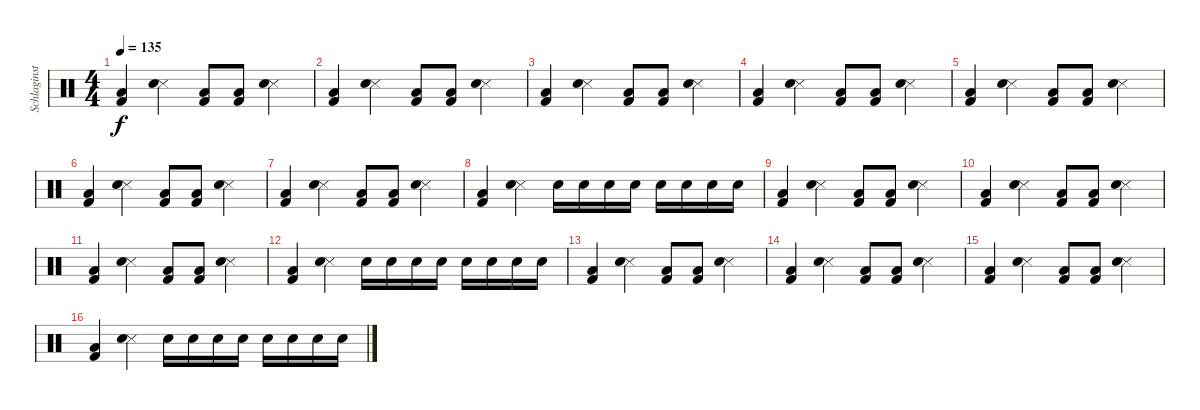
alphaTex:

\track ("Schlaginstrumente - Auswahl" "Schlaginst") {instrument percussion}
\staff {score}
\articulation defaults
\ts (4 4)
\tempo 135
\clef neutral
\ks c
("Kick (hit) 2" "Low Tom (hit)").4{dy f} ("Snare (side stick) 3" "Electric Snare (hit)").4 ("Kick (hit) 2" "Low Tom (hit)").8 ("Kick (hit) 2" "Low Tom (hit)").8 ("Snare (side stick) 3" "Electric Snare (hit)").4 |
("Kick (hit) 2" "Low Tom (hit)").4 ("Snare (side stick) 3" "Electric Snare (hit)").4 ("Kick (hit) 2" "Low Tom (hit)").8 ("Kick (hit) 2" "Low Tom (hit)").8 ("Snare (side stick) 3" "Electric Snare (hit)").4 |
("Kick (hit) 2" "Low Tom (hit)").4 ("Snare (side stick) 3" "Electric Snare (hit)").4 ("Kick (hit) 2" "Low Tom (hit)").8 ("Kick (hit) 2" "Low Tom (hit)").8 ("Snare (side stick) 3" "Electric Snare (hit)").4 |
("Kick (hit) 2" "Low Tom (hit)").4 ("Snare (side stick) 3" "Electric Snare (hit)").4 ("Kick (hit) 2" "Low Tom (hit)").8 ("Kick (hit) 2" "Low Tom (hit)").8 ("Snare (side stick) 3" "Electric Snare (hit)").4 |
("Kick (hit) 2" "Low Tom (hit)").4 ("Snare (side stick) 3" "Electric Snare (hit)").4 ("Kick (hit) 2" "Low Tom (hit)").8 ("Kick (hit) 2" "Low Tom (hit)").8 ("Snare (side stick) 3" "Electric Snare (hit)").4 |
("Kick (hit) 2" "Low Tom (hit)").4 ("Snare (side stick) 3" "Electric Snare (hit)").4 ("Kick (hit) 2" "Low Tom (hit)").8 ("Kick (hit) 2" "Low Tom (hit)").8 ("Snare (side stick) 3" "Electric Snare (hit)").4 |
("Kick (hit) 2" "Low Tom (hit)").4 ("Snare (side stick) 3" "Electric Snare (hit)").4 ("Kick (hit) 2" "Low Tom (hit)").8 ("Kick (hit) 2" "Low Tom (hit)").8 ("Snare (side stick) 3" "Electric Snare (hit)").4 |
("Kick (hit) 2" "Low Tom (hit)").4 ("Snare (side stick) 3" "Electric Snare (hit)").4 "Electric Snare (hit)".16 "Electric Snare (hit)".16 "Electric Snare (hit)".16 "Electric Snare (hit)".16 "Electric Snare (hit)".16 "Electric Snare (hit)".16 "Electric Snare (hit)".16 "Electric Snare (hit)".16 |
("Kick (hit) 2" "Low Tom (hit)").4 ("Snare (side stick) 3" "Electric Snare (hit)").4 ("Kick (hit) 2" "Low Tom (hit)").8 ("Kick (hit) 2" "Low Tom (hit)").8 ("Snare (side stick) 3" "Electric Snare (hit)").4 |
("Kick (hit) 2" "Low Tom (hit)").4 ("Snare (side stick) 3" "Electric Snare (hit)").4 ("Kick (hit) 2" "Low Tom (hit)").8 ("Kick (hit) 2" "Low Tom (hit)").8 ("Snare (side stick) 3" "Electric Snare (hit)").4 |
("Kick (hit) 2" "Low Tom (hit)").4 ("Snare (side stick) 3" "Electric Snare (hit)").4 ("Kick (hit) 2" "Low Tom (hit)").8 ("Kick (hit) 2" "Low Tom (hit)").8 ("Snare (side stick) 3" "Electric Snare (hit)").4 |
("Kick (hit) 2" "Low Tom (hit)").4 ("Snare (side stick) 3" "Electric Snare (hit)").4 "Electric Snare (hit)".16 "Electric Snare (hit)".16 "Electric Snare (hit)".16 "Electric Snare (hit)".16 "Electric Snare (hit)".16 "Electric Snare (hit)".16 "Electric Snare (hit)".16 "Electric Snare (hit)".16 |
("Kick (hit) 2" "Low Tom (hit)").4 ("Snare (side stick) 3" "Electric Snare (hit)").4 ("Kick (hit) 2" "Low Tom (hit)").8 ("Kick (hit) 2" "Low Tom (hit)").8 ("Snare (side stick) 3" "Electric Snare (hit)").4 |
("Kick (hit) 2" "Low Tom (hit)").4 ("Snare (side stick) 3" "Electric Snare (hit)").4 ("Kick (hit) 2" "Low Tom (hit)").8 ("Kick (hit) 2" "Low Tom (hit)").8 ("Snare (side stick) 3" "Electric Snare (hit)").4 |
("Kick (hit) 2" "Low Tom (hit)").4 ("Snare (side stick) 3" "Electric Snare (hit)").4 ("Kick (hit) 2" "Low Tom (hit)").8 ("Kick (hit) 2" "Low Tom (hit)").8 ("Snare (side stick) 3" "Electric Snare (hit)").4 |
("Kick (hit) 2" "Low Tom (hit)").4 ("Snare (side stick) 3" "Electric Snare (hit)").4 "Electric Snare (hit)".16 "Electric Snare (hit)".16 "Electric Snare (hit)".16 "Electric Snare (hit)".16 "Electric Snare (hit)".16 "Electric Snare (hit)".16 "Electric Snare (hit)".16 "Electric Snare (hit)".16
